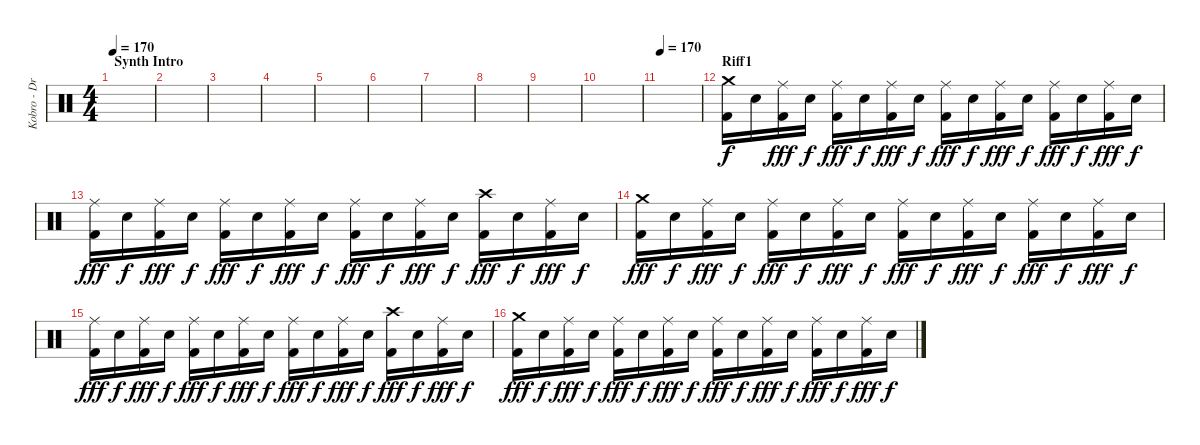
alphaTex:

\track ("Kobro - Drums + Percussion" "Kobro - Dr") {instrument percussion}
\staff {score}
\articulation defaults
\ts (4 4)
\section ("" "Synth Intro")
\tempo 170
\tempo 85
\tempo 170
\clef neutral
\ks c
|
|
|
|
|
|
|
|
|
|
\tempo 170
|
\section ("" "Riff1")
("Crash medium (hit)" "Kick (hit) 2").16 "Electric Snare (hit)".16{dy f} ("Ride (middle)" "Kick (hit) 2").16{dy fff} "Electric Snare (hit)".16{dy f} ("Ride (middle)" "Kick (hit) 2").16{dy fff} "Electric Snare (hit)".16{dy f} ("Ride (middle)" "Kick (hit) 2").16{dy fff} "Electric Snare (hit)".16{dy f} ("Ride (middle)" "Kick (hit) 2").16{dy fff} "Electric Snare (hit)".16{dy f} ("Ride (middle)" "Kick (hit) 2").16{dy fff} "Electric Snare (hit)".16{dy f} ("Ride (middle)" "Kick (hit) 2").16{dy fff} "Electric Snare (hit)".16{dy f} ("Ride (middle)" "Kick (hit) 2").16{dy fff} "Electric Snare (hit)".16{dy f} |
("Ride (middle)" "Kick (hit) 2").16{dy fff} "Electric Snare (hit)".16{dy f} ("Ride (middle)" "Kick (hit) 2").16{dy fff} "Electric Snare (hit)".16{dy f} ("Ride (middle)" "Kick (hit) 2").16{dy fff} "Electric Snare (hit)".16{dy f} ("Ride (middle)" "Kick (hit) 2").16{dy fff} "Electric Snare (hit)".16{dy f} ("Ride (middle)" "Kick (hit) 2").16{dy fff} "Electric Snare (hit)".16{dy f} ("Ride (middle)" "Kick (hit) 2").16{dy fff} "Electric Snare (hit)".16{dy f} ("Crash high (hit)" "Kick (hit) 2").16{dy fff} "Electric Snare (hit)".16{dy f} ("Ride (middle)" "Kick (hit) 2").16{dy fff} "Electric Snare (hit)".16{dy f} |
("Crash medium (hit)" "Kick (hit) 2").16{dy fff} "Electric Snare (hit)".16{dy f} ("Ride (middle)" "Kick (hit) 2").16{dy fff} "Electric Snare (hit)".16{dy f} ("Ride (middle)" "Kick (hit) 2").16{dy fff} "Electric Snare (hit)".16{dy f} ("Ride (middle)" "Kick (hit) 2").16{dy fff} "Electric Snare (hit)".16{dy f} ("Ride (middle)" "Kick (hit) 2").16{dy fff} "Electric Snare (hit)".16{dy f} ("Ride (middle)" "Kick (hit) 2").16{dy fff} "Electric Snare (hit)".16{dy f} ("Ride (middle)" "Kick (hit) 2").16{dy fff} "Electric Snare (hit)".16{dy f} ("Ride (middle)" "Kick (hit) 2").16{dy fff} "Electric Snare (hit)".16{dy f} |
("Ride (middle)" "Kick (hit) 2").16{dy fff} "Electric Snare (hit)".16{dy f} ("Ride (middle)" "Kick (hit) 2").16{dy fff} "Electric Snare (hit)".16{dy f} ("Ride (middle)" "Kick (hit) 2").16{dy fff} "Electric Snare (hit)".16{dy f} ("Ride (middle)" "Kick (hit) 2").16{dy fff} "Electric Snare (hit)".16{dy f} ("Ride (middle)" "Kick (hit) 2").16{dy fff} "Electric Snare (hit)".16{dy f} ("Ride (middle)" "Kick (hit) 2").16{dy fff} "Electric Snare (hit)".16{dy f} ("Crash high (hit)" "Kick (hit) 2").16{dy fff} "Electric Snare (hit)".16{dy f} ("Ride (middle)" "Kick (hit) 2").16{dy fff} "Electric Snare (hit)".16{dy f} |
("Crash medium (hit)" "Kick (hit) 2").16{dy fff} "Electric Snare (hit)".16{dy f} ("Ride (middle)" "Kick (hit) 2").16{dy fff} "Electric Snare (hit)".16{dy f} ("Ride (middle)" "Kick (hit) 2").16{dy fff} "Electric Snare (hit)".16{dy f} ("Ride (middle)" "Kick (hit) 2").16{dy fff} "Electric Snare (hit)".16{dy f} ("Ride (middle)" "Kick (hit) 2").16{dy fff} "Electric Snare (hit)".16{dy f} ("Ride (middle)" "Kick (hit) 2").16{dy fff} "Electric Snare (hit)".16{dy f} ("Ride (middle)" "Kick (hit) 2").16{dy fff} "Electric Snare (hit)".16{dy f} ("Ride (middle)" "Kick (hit) 2").16{dy fff} "Electric Snare (hit)".16{dy f}
